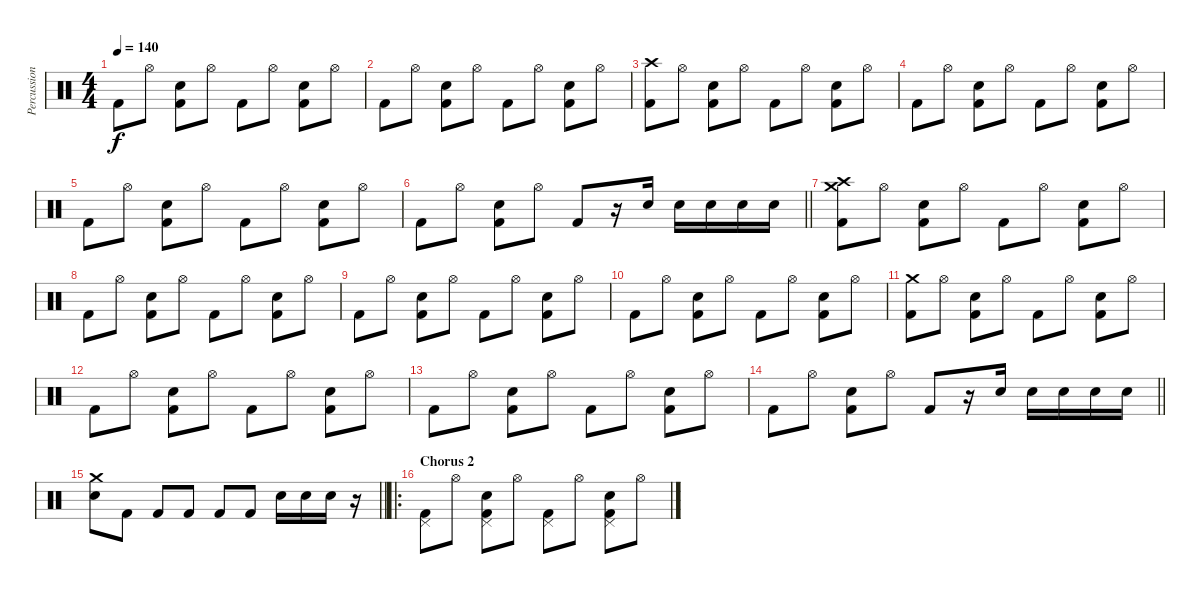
\track ("Percussion" "Percussion") {instrument percussion}
\staff {score}
\articulation defaults
\ts (4 4)
\tempo 140
\clef neutral
\ks c "Kick (hit) 2".8{dy f} "Hi-Hat (open)".8
("Electric Snare (hit)" "Kick (hit) 2").8 "Hi-Hat (open)".8 "Kick (hit) 2".8 "Hi-Hat (open)".8 ("Electric Snare (hit)" "Kick (hit) 2").8 "Hi-Hat (open)".8 |
"Kick (hit) 2".8 "Hi-Hat (open)".8 ("Electric Snare (hit)" "Kick (hit) 2").8 "Hi-Hat (open)".8 "Kick (hit) 2".8 "Hi-Hat (open)".8 ("Electric Snare (hit)" "Kick (hit) 2").8 "Hi-Hat (open)".8 |
("Crash high (hit)" "Kick (hit) 2").8 "Hi-Hat (open)".8 ("Electric Snare (hit)" "Kick (hit) 2").8 "Hi-Hat (open)".8 "Kick (hit) 2".8 "Hi-Hat (open)".8 ("Electric Snare (hit)" "Kick (hit) 2").8 "Hi-Hat (open)".8 |
"Kick (hit) 2".8 "Hi-Hat (open)".8 ("Electric Snare (hit)" "Kick (hit) 2").8 "Hi-Hat (open)".8 "Kick (hit) 2".8 "Hi-Hat (open)".8 ("Electric Snare (hit)" "Kick (hit) 2").8 "Hi-Hat (open)".8 |
"Kick (hit) 2".8 "Hi-Hat (open)".8 ("Electric Snare (hit)" "Kick (hit) 2").8 "Hi-Hat (open)".8 "Kick (hit) 2".8 "Hi-Hat (open)".8 ("Electric Snare (hit)" "Kick (hit) 2").8 "Hi-Hat (open)".8 |
\barLineRight lightlight "Kick (hit) 2".8 "Hi-Hat (open)".8
("Electric Snare (hit)" "Kick (hit) 2").8 "Hi-Hat (open)".8 "Kick (hit) 2".8 r.16 "Electric Snare (hit)".16 "Electric Snare (hit)".16 "Electric Snare (hit)".16 "Electric Snare (hit)".16 "Electric Snare (hit)".16 |
("Crash high (hit)" "Crash medium (hit)" "Kick (hit) 2").8 "Hi-Hat (open)".8 ("Electric Snare (hit)" "Kick (hit) 2").8 "Hi-Hat (open)".8 "Kick (hit) 2".8 "Hi-Hat (open)".8 ("Electric Snare (hit)" "Kick (hit) 2").8 "Hi-Hat (open)".8 |
"Kick (hit) 2".8 "Hi-Hat (open)".8 ("Electric Snare (hit)" "Kick (hit) 2").8 "Hi-Hat (open)".8 "Kick (hit) 2".8 "Hi-Hat (open)".8 ("Electric Snare (hit)" "Kick (hit) 2").8 "Hi-Hat (open)".8 |
"Kick (hit) 2".8 "Hi-Hat (open)".8 ("Electric Snare (hit)" "Kick (hit) 2").8 "Hi-Hat (open)".8 "Kick (hit) 2".8 "Hi-Hat (open)".8 ("Electric Snare (hit)" "Kick (hit) 2").8 "Hi-Hat (open)".8 |
"Kick (hit) 2".8 "Hi-Hat (open)".8 ("Electric Snare (hit)" "Kick (hit) 2").8 "Hi-Hat (open)".8 "Kick (hit) 2".8 "Hi-Hat (open)".8 ("Electric Snare (hit)" "Kick (hit) 2").8 "Hi-Hat (open)".8 |
("Crash medium (hit)" "Kick (hit) 2").8 "Hi-Hat (open)".8 ("Electric Snare (hit)" "Kick (hit) 2").8 "Hi-Hat (open)".8 "Kick (hit) 2".8 "Hi-Hat (open)".8 ("Electric Snare (hit)" "Kick (hit) 2").8 "Hi-Hat (open)".8 |
"Kick (hit) 2".8 "Hi-Hat (open)".8 ("Electric Snare (hit)" "Kick (hit) 2").8 "Hi-Hat (open)".8 "Kick (hit) 2".8 "Hi-Hat (open)".8 ("Electric Snare (hit)" "Kick (hit) 2").8 "Hi-Hat (open)".8 |
"Kick (hit) 2".8 "Hi-Hat (open)".8 ("Electric Snare (hit)" "Kick (hit) 2").8 "Hi-Hat (open)".8 "Kick (hit) 2".8 "Hi-Hat (open)".8 ("Electric Snare (hit)" "Kick (hit) 2").8 "Hi-Hat (open)".8 |
\barLineRight lightlight "Kick (hit) 2".8 "Hi-Hat (open)".8
("Electric Snare (hit)" "Kick (hit) 2").8 "Hi-Hat (open)".8 "Kick (hit) 2".8 r.16 "Electric Snare (hit)".16 "Electric Snare (hit)".16 "Electric Snare (hit)".16 "Electric Snare (hit)".16 "Electric Snare (hit)".16 |
\barLineRight lightlight
("Crash medium (hit)" "Electric Snare (hit)").8 "Kick (hit) 2".8 "Kick (hit) 2".8 "Kick (hit) 2".8 "Kick (hit) 2".8 "Kick (hit) 2".8 "Electric Snare (hit)".16 "Electric Snare (hit)".16 "Electric Snare (hit)".16 r.16 |
\ro
\section ("" "Chorus 2")
("Pedal Hi-Hat (hit)" "Kick (hit) 2").8 "Hi-Hat (open)".8 ("Pedal Hi-Hat (hit)" "Electric Snare (hit)" "Kick (hit) 2").8 "Hi-Hat (open)".8 ("Pedal Hi-Hat (hit)" "Kick (hit) 2").8 "Hi-Hat (open)".8 ("Pedal Hi-Hat (hit)" "Electric Snare (hit)" "Kick (hit) 2").8 "Hi-Hat (open)".8
